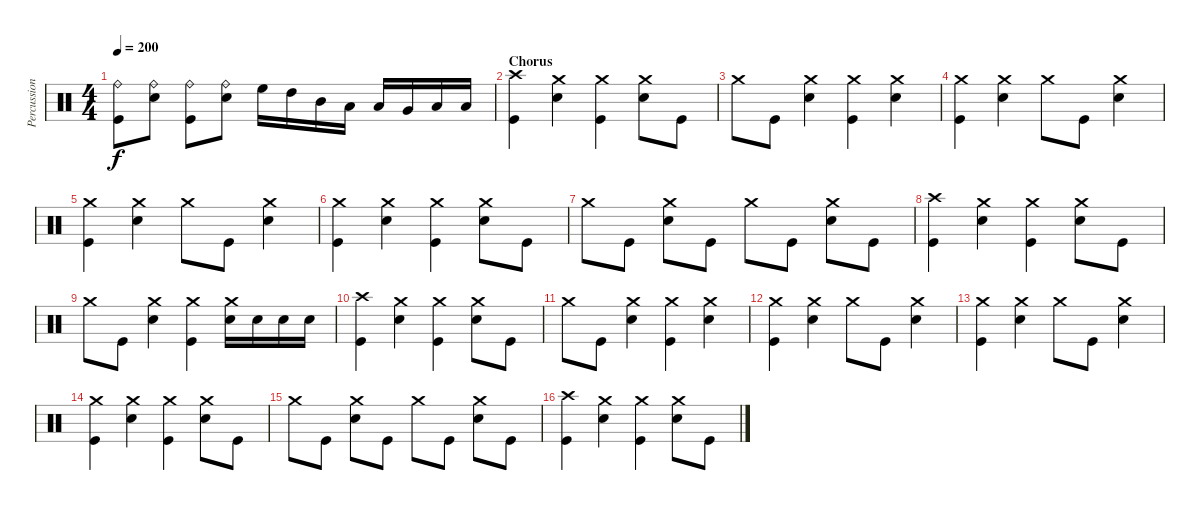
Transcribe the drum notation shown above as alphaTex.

\track ("Percussion" "Percussion") {instrument percussion}
\staff {score}
\articulation defaults
\ts (4 4)
\tempo 200
\clef neutral
\ks c
("Ride (bell)" "Kick (hit)").8{dy f} ("Ride (bell)" "Electric Snare (hit)").8 ("Ride (bell)" "Kick (hit)").8 ("Ride (bell)" "Electric Snare (hit)").8 "High Floor Tom (hit)".16 "High Tom (hit)".16 "Mid Tom (hit)".16 "Low Tom (hit)".16 "Low Tom (hit)".16 "Very Low Tom (hit)".16 "Low Floor Tom (hit)".16 "Low Tom (hit)".16 |
\section ("" "Chorus")
("Crash high (hit)" "Kick (hit)").4 ("Crash medium (hit)" "Electric Snare (hit)").4 ("Crash medium (hit)" "Kick (hit)").4 ("Crash medium (hit)" "Electric Snare (hit)").8 "Kick (hit)".8 |
"Crash medium (hit)".8 "Kick (hit)".8 ("Crash medium (hit)" "Electric Snare (hit)").4 ("Crash medium (hit)" "Kick (hit)").4 ("Crash medium (hit)" "Electric Snare (hit)").4 |
("Crash medium (hit)" "Kick (hit)").4 ("Crash medium (hit)" "Electric Snare (hit)").4 "Crash medium (hit)".8 "Kick (hit)".8 ("Crash medium (hit)" "Electric Snare (hit)").4 |
("Crash medium (hit)" "Kick (hit)").4 ("Crash medium (hit)" "Electric Snare (hit)").4 "Crash medium (hit)".8 "Kick (hit)".8 ("Crash medium (hit)" "Electric Snare (hit)").4 |
("Crash medium (hit)" "Kick (hit)").4 ("Crash medium (hit)" "Electric Snare (hit)").4 ("Crash medium (hit)" "Kick (hit)").4 ("Crash medium (hit)" "Electric Snare (hit)").8 "Kick (hit)".8 |
"Crash medium (hit)".8 "Kick (hit)".8 ("Crash medium (hit)" "Electric Snare (hit)").8 "Kick (hit)".8 "Crash medium (hit)".8 "Kick (hit)".8 ("Crash medium (hit)" "Electric Snare (hit)").8 "Kick (hit)".8 |
("Crash high (hit)" "Kick (hit)").4 ("Crash medium (hit)" "Electric Snare (hit)").4 ("Crash medium (hit)" "Kick (hit)").4 ("Crash medium (hit)" "Electric Snare (hit)").8 "Kick (hit)".8 |
"Crash medium (hit)".8 "Kick (hit)".8 ("Crash medium (hit)" "Electric Snare (hit)").4 ("Crash medium (hit)" "Kick (hit)").4 ("Crash medium (hit)" "Electric Snare (hit)").16 "Electric Snare (hit)".16 "Electric Snare (hit)".16 "Electric Snare (hit)".16 |
("Crash high (hit)" "Kick (hit)").4 ("Crash medium (hit)" "Electric Snare (hit)").4 ("Crash medium (hit)" "Kick (hit)").4 ("Crash medium (hit)" "Electric Snare (hit)").8 "Kick (hit)".8 |
"Crash medium (hit)".8 "Kick (hit)".8 ("Crash medium (hit)" "Electric Snare (hit)").4 ("Crash medium (hit)" "Kick (hit)").4 ("Crash medium (hit)" "Electric Snare (hit)").4 |
("Crash medium (hit)" "Kick (hit)").4 ("Crash medium (hit)" "Electric Snare (hit)").4 "Crash medium (hit)".8 "Kick (hit)".8 ("Crash medium (hit)" "Electric Snare (hit)").4 |
("Crash medium (hit)" "Kick (hit)").4 ("Crash medium (hit)" "Electric Snare (hit)").4 "Crash medium (hit)".8 "Kick (hit)".8 ("Crash medium (hit)" "Electric Snare (hit)").4 |
("Crash medium (hit)" "Kick (hit)").4 ("Crash medium (hit)" "Electric Snare (hit)").4 ("Crash medium (hit)" "Kick (hit)").4 ("Crash medium (hit)" "Electric Snare (hit)").8 "Kick (hit)".8 |
"Crash medium (hit)".8 "Kick (hit)".8 ("Crash medium (hit)" "Electric Snare (hit)").8 "Kick (hit)".8 "Crash medium (hit)".8 "Kick (hit)".8 ("Crash medium (hit)" "Electric Snare (hit)").8 "Kick (hit)".8 |
("Crash high (hit)" "Kick (hit)").4 ("Crash medium (hit)" "Electric Snare (hit)").4 ("Crash medium (hit)" "Kick (hit)").4 ("Crash medium (hit)" "Electric Snare (hit)").8 "Kick (hit)".8
